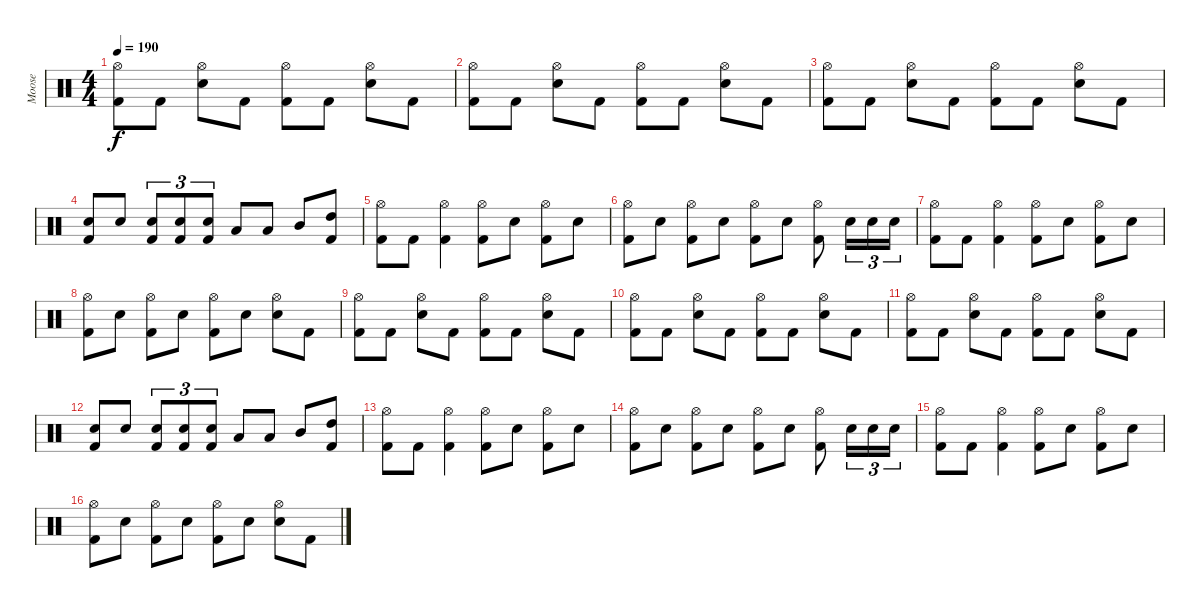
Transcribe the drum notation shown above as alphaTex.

\track ("Moose" "Moose") {instrument percussion}
\staff {score}
\articulation defaults
\ts (4 4)
\tempo 190
\clef neutral
\ks c
("Hi-Hat (open)" "Kick (hit) 2").8{dy f} "Kick (hit) 2".8 ("Hi-Hat (open)" "Snare (hit) 2").8 "Kick (hit) 2".8 ("Hi-Hat (open)" "Kick (hit) 2").8 "Kick (hit) 2".8 ("Hi-Hat (open)" "Snare (hit) 2").8 "Kick (hit) 2".8 |
("Hi-Hat (open)" "Kick (hit) 2").8 "Kick (hit) 2".8 ("Hi-Hat (open)" "Snare (hit) 2").8 "Kick (hit) 2".8 ("Hi-Hat (open)" "Kick (hit) 2").8 "Kick (hit) 2".8 ("Hi-Hat (open)" "Snare (hit) 2").8 "Kick (hit) 2".8 |
("Hi-Hat (open)" "Kick (hit) 2").8 "Kick (hit) 2".8 ("Hi-Hat (open)" "Snare (hit) 2").8 "Kick (hit) 2".8 ("Hi-Hat (open)" "Kick (hit) 2").8 "Kick (hit) 2".8 ("Hi-Hat (open)" "Snare (hit) 2").8 "Kick (hit) 2".8 |
("Electric Snare (hit)" "Kick (hit) 2").8 "Snare (hit) 2".8 ("Electric Snare (hit)" "Kick (hit) 2").8{tu (3 2)} ("Electric Snare (hit)" "Kick (hit) 2").8{tu (3 2)} ("Electric Snare (hit)" "Kick (hit) 2").8{tu (3 2)} "Low Tom (hit)".8 "Low Tom (hit)".8 "Mid Tom (hit)".8 ("High Tom (hit)" "Kick (hit) 2").8 |
("Hi-Hat (open)" "Kick (hit) 2").8 "Kick (hit) 2".8 ("Hi-Hat (open)" "Kick (hit) 2").4 ("Hi-Hat (open)" "Kick (hit) 2").8 "Snare (hit) 2".8 ("Hi-Hat (open)" "Kick (hit) 2").8 "Snare (hit) 2".8 |
("Hi-Hat (open)" "Kick (hit) 2").8 "Snare (hit) 2".8 ("Hi-Hat (open)" "Kick (hit) 2").8 "Snare (hit) 2".8 ("Hi-Hat (open)" "Kick (hit) 2").8 "Snare (hit) 2".8 ("Hi-Hat (open)" "Kick (hit) 2").8 "Electric Snare (hit)".16{tu (3 2)} "Electric Snare (hit)".16{tu (3 2)} "Snare (hit) 2".16{tu (3 2)} |
("Hi-Hat (open)" "Kick (hit) 2").8 "Kick (hit) 2".8 ("Hi-Hat (open)" "Kick (hit) 2").4 ("Hi-Hat (open)" "Kick (hit) 2").8 "Snare (hit) 2".8 ("Hi-Hat (open)" "Kick (hit) 2").8 "Snare (hit) 2".8 |
("Hi-Hat (open)" "Kick (hit) 2").8 "Snare (hit) 2".8 ("Hi-Hat (open)" "Kick (hit) 2").8 "Snare (hit) 2".8 ("Hi-Hat (open)" "Kick (hit) 2").8 "Snare (hit) 2".8 ("Hi-Hat (open)" "Snare (hit) 2").8 "Kick (hit) 2".8 |
("Hi-Hat (open)" "Kick (hit) 2").8 "Kick (hit) 2".8 ("Hi-Hat (open)" "Snare (hit) 2").8 "Kick (hit) 2".8 ("Hi-Hat (open)" "Kick (hit) 2").8 "Kick (hit) 2".8 ("Hi-Hat (open)" "Snare (hit) 2").8 "Kick (hit) 2".8 |
("Hi-Hat (open)" "Kick (hit) 2").8 "Kick (hit) 2".8 ("Hi-Hat (open)" "Snare (hit) 2").8 "Kick (hit) 2".8 ("Hi-Hat (open)" "Kick (hit) 2").8 "Kick (hit) 2".8 ("Hi-Hat (open)" "Snare (hit) 2").8 "Kick (hit) 2".8 |
("Hi-Hat (open)" "Kick (hit) 2").8 "Kick (hit) 2".8 ("Hi-Hat (open)" "Snare (hit) 2").8 "Kick (hit) 2".8 ("Hi-Hat (open)" "Kick (hit) 2").8 "Kick (hit) 2".8 ("Hi-Hat (open)" "Snare (hit) 2").8 "Kick (hit) 2".8 |
("Electric Snare (hit)" "Kick (hit) 2").8 "Snare (hit) 2".8 ("Electric Snare (hit)" "Kick (hit) 2").8{tu (3 2)} ("Electric Snare (hit)" "Kick (hit) 2").8{tu (3 2)} ("Electric Snare (hit)" "Kick (hit) 2").8{tu (3 2)} "Low Tom (hit)".8 "Low Tom (hit)".8 "Mid Tom (hit)".8 ("High Tom (hit)" "Kick (hit) 2").8 |
("Hi-Hat (open)" "Kick (hit) 2").8 "Kick (hit) 2".8 ("Hi-Hat (open)" "Kick (hit) 2").4 ("Hi-Hat (open)" "Kick (hit) 2").8 "Snare (hit) 2".8 ("Hi-Hat (open)" "Kick (hit) 2").8 "Snare (hit) 2".8 |
("Hi-Hat (open)" "Kick (hit) 2").8 "Snare (hit) 2".8 ("Hi-Hat (open)" "Kick (hit) 2").8 "Snare (hit) 2".8 ("Hi-Hat (open)" "Kick (hit) 2").8 "Snare (hit) 2".8 ("Hi-Hat (open)" "Kick (hit) 2").8 "Electric Snare (hit)".16{tu (3 2)} "Electric Snare (hit)".16{tu (3 2)} "Snare (hit) 2".16{tu (3 2)} |
("Hi-Hat (open)" "Kick (hit) 2").8 "Kick (hit) 2".8 ("Hi-Hat (open)" "Kick (hit) 2").4 ("Hi-Hat (open)" "Kick (hit) 2").8 "Snare (hit) 2".8 ("Hi-Hat (open)" "Kick (hit) 2").8 "Snare (hit) 2".8 |
("Hi-Hat (open)" "Kick (hit) 2").8 "Snare (hit) 2".8 ("Hi-Hat (open)" "Kick (hit) 2").8 "Snare (hit) 2".8 ("Hi-Hat (open)" "Kick (hit) 2").8 "Snare (hit) 2".8 ("Hi-Hat (open)" "Snare (hit) 2").8 "Kick (hit) 2".8
